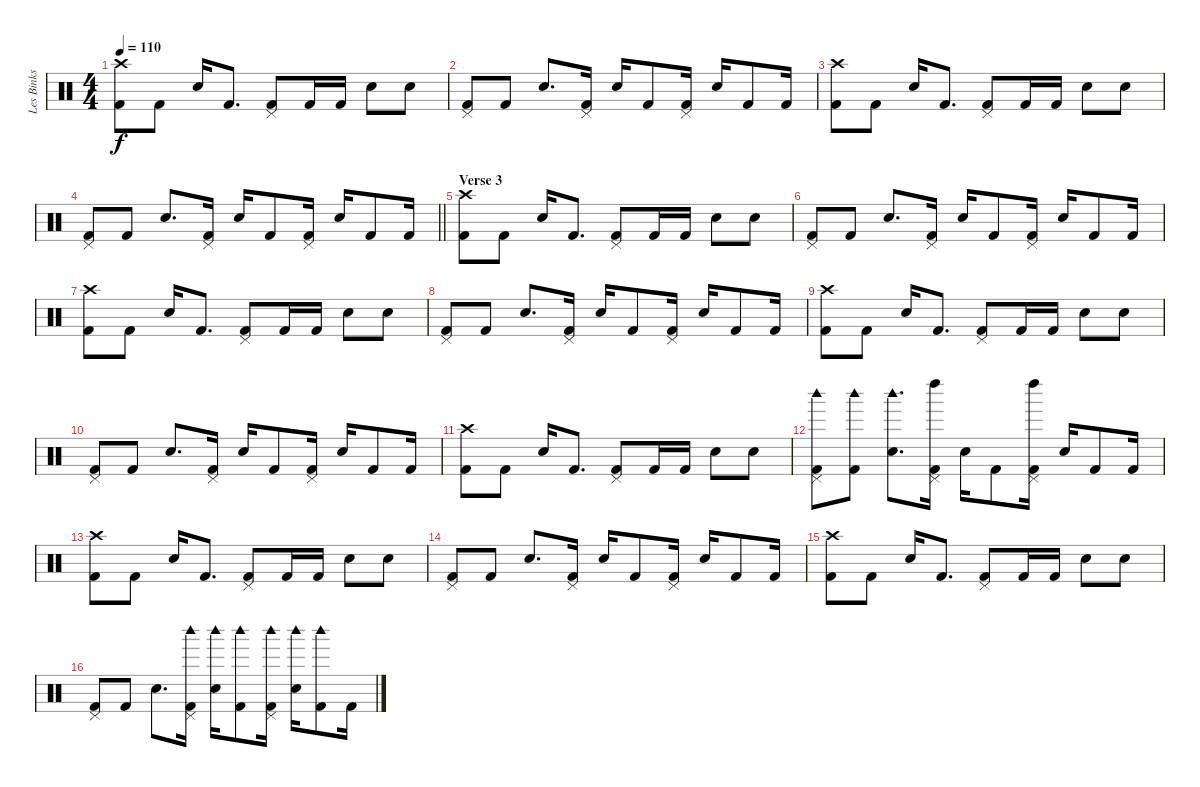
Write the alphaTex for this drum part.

\track ("Les Binks" "Les Binks") {instrument percussion}
\staff {score}
\articulation defaults
\ts (4 4)
\tempo 110
\clef neutral
\ks c
("Crash high (hit)" "Kick (hit) 2").8{dy f} "Kick (hit) 2".8 "Electric Snare (hit)".16 "Kick (hit) 2".8{d} ("Pedal Hi-Hat (hit)" "Kick (hit) 2").8 "Kick (hit) 2".16 "Kick (hit) 2".16 "Electric Snare (hit)".8 "Electric Snare (hit)".8 |
("Pedal Hi-Hat (hit)" "Kick (hit) 2").8 "Kick (hit) 2".8 "Electric Snare (hit)".8{d} ("Pedal Hi-Hat (hit)" "Kick (hit) 2").16 "Electric Snare (hit)".16 "Kick (hit) 2".8 ("Pedal Hi-Hat (hit)" "Kick (hit) 2").16 "Electric Snare (hit)".16 "Kick (hit) 2".8 "Kick (hit) 2".16 |
("Crash high (hit)" "Kick (hit) 2").8 "Kick (hit) 2".8 "Electric Snare (hit)".16 "Kick (hit) 2".8{d} ("Pedal Hi-Hat (hit)" "Kick (hit) 2").8 "Kick (hit) 2".16 "Kick (hit) 2".16 "Electric Snare (hit)".8 "Electric Snare (hit)".8 |
\barLineRight lightlight
("Pedal Hi-Hat (hit)" "Kick (hit) 2").8 "Kick (hit) 2".8 "Electric Snare (hit)".8{d} ("Pedal Hi-Hat (hit)" "Kick (hit) 2").16 "Electric Snare (hit)".16 "Kick (hit) 2".8 ("Pedal Hi-Hat (hit)" "Kick (hit) 2").16 "Electric Snare (hit)".16 "Kick (hit) 2".8 "Kick (hit) 2".16 |
\section ("" "Verse 3")
("Crash high (hit)" "Kick (hit) 2").8 "Kick (hit) 2".8 "Electric Snare (hit)".16 "Kick (hit) 2".8{d} ("Pedal Hi-Hat (hit)" "Kick (hit) 2").8 "Kick (hit) 2".16 "Kick (hit) 2".16 "Electric Snare (hit)".8 "Electric Snare (hit)".8 |
("Pedal Hi-Hat (hit)" "Kick (hit) 2").8 "Kick (hit) 2".8 "Electric Snare (hit)".8{d} ("Pedal Hi-Hat (hit)" "Kick (hit) 2").16 "Electric Snare (hit)".16 "Kick (hit) 2".8 ("Pedal Hi-Hat (hit)" "Kick (hit) 2").16 "Electric Snare (hit)".16 "Kick (hit) 2".8 "Kick (hit) 2".16 |
("Crash high (hit)" "Kick (hit) 2").8 "Kick (hit) 2".8 "Electric Snare (hit)".16 "Kick (hit) 2".8{d} ("Pedal Hi-Hat (hit)" "Kick (hit) 2").8 "Kick (hit) 2".16 "Kick (hit) 2".16 "Electric Snare (hit)".8 "Electric Snare (hit)".8 |
("Pedal Hi-Hat (hit)" "Kick (hit) 2").8 "Kick (hit) 2".8 "Electric Snare (hit)".8{d} ("Pedal Hi-Hat (hit)" "Kick (hit) 2").16 "Electric Snare (hit)".16 "Kick (hit) 2".8 ("Pedal Hi-Hat (hit)" "Kick (hit) 2").16 "Electric Snare (hit)".16 "Kick (hit) 2".8 "Kick (hit) 2".16 |
("Crash high (hit)" "Kick (hit) 2").8 "Kick (hit) 2".8 "Electric Snare (hit)".16 "Kick (hit) 2".8{d} ("Pedal Hi-Hat (hit)" "Kick (hit) 2").8 "Kick (hit) 2".16 "Kick (hit) 2".16 "Electric Snare (hit)".8 "Electric Snare (hit)".8 |
("Pedal Hi-Hat (hit)" "Kick (hit) 2").8 "Kick (hit) 2".8 "Electric Snare (hit)".8{d} ("Pedal Hi-Hat (hit)" "Kick (hit) 2").16 "Electric Snare (hit)".16 "Kick (hit) 2".8 ("Pedal Hi-Hat (hit)" "Kick (hit) 2").16 "Electric Snare (hit)".16 "Kick (hit) 2".8 "Kick (hit) 2".16 |
("Crash high (hit)" "Kick (hit) 2").8 "Kick (hit) 2".8 "Electric Snare (hit)".16 "Kick (hit) 2".8{d} ("Pedal Hi-Hat (hit)" "Kick (hit) 2").8 "Kick (hit) 2".16 "Kick (hit) 2".16 "Electric Snare (hit)".8 "Electric Snare (hit)".8 |
("Woodblock high (hit)" "Pedal Hi-Hat (hit)" "Kick (hit) 2").8 ("Woodblock high (hit)" "Kick (hit) 2").8 ("Woodblock high (hit)" "Electric Snare (hit)").8{d} ("Left Maraca (hit)" "Pedal Hi-Hat (hit)" "Kick (hit) 2").16 "Electric Snare (hit)".16 "Kick (hit) 2".8 ("Left Maraca (hit)" "Pedal Hi-Hat (hit)" "Kick (hit) 2").16 "Electric Snare (hit)".16 "Kick (hit) 2".8 "Kick (hit) 2".16 |
("Crash high (hit)" "Kick (hit) 2").8 "Kick (hit) 2".8 "Electric Snare (hit)".16 "Kick (hit) 2".8{d} ("Pedal Hi-Hat (hit)" "Kick (hit) 2").8 "Kick (hit) 2".16 "Kick (hit) 2".16 "Electric Snare (hit)".8 "Electric Snare (hit)".8 |
("Pedal Hi-Hat (hit)" "Kick (hit) 2").8 "Kick (hit) 2".8 "Electric Snare (hit)".8{d} ("Pedal Hi-Hat (hit)" "Kick (hit) 2").16 "Electric Snare (hit)".16 "Kick (hit) 2".8 ("Pedal Hi-Hat (hit)" "Kick (hit) 2").16 "Electric Snare (hit)".16 "Kick (hit) 2".8 "Kick (hit) 2".16 |
("Crash high (hit)" "Kick (hit) 2").8 "Kick (hit) 2".8 "Electric Snare (hit)".16 "Kick (hit) 2".8{d} ("Pedal Hi-Hat (hit)" "Kick (hit) 2").8 "Kick (hit) 2".16 "Kick (hit) 2".16 "Electric Snare (hit)".8 "Electric Snare (hit)".8 |
("Pedal Hi-Hat (hit)" "Kick (hit) 2").8 "Kick (hit) 2".8 "Electric Snare (hit)".8{d} ("Woodblock high (hit)" "Pedal Hi-Hat (hit)" "Kick (hit) 2").16 ("Woodblock high (hit)" "Electric Snare (hit)").16 ("Woodblock high (hit)" "Kick (hit) 2").8 ("Woodblock high (hit)" "Pedal Hi-Hat (hit)" "Kick (hit) 2").16 ("Woodblock high (hit)" "Electric Snare (hit)").16 ("Woodblock high (hit)" "Kick (hit) 2").8 "Kick (hit) 2".16
